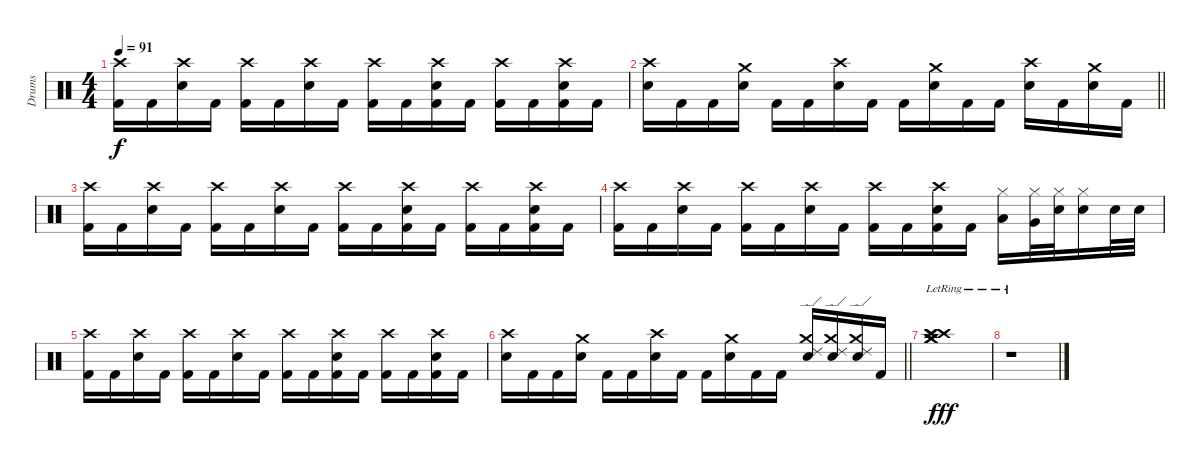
\track ("Drums" "Drums") {instrument percussion}
\staff {score}
\articulation defaults
\ts (4 4)
\tempo 91
\clef neutral
\ks c
("Crash high (hit)" "Kick (hit) 2").16{dy f} "Kick (hit) 2".16 ("Crash high (hit)" "Electric Snare (hit)").16 "Kick (hit) 2".16 ("Crash high (hit)" "Kick (hit) 2").16 "Kick (hit) 2".16 ("Crash high (hit)" "Electric Snare (hit)").16 "Kick (hit) 2".16 ("Crash high (hit)" "Kick (hit) 2").16 "Kick (hit) 2".16 ("Crash high (hit)" "Electric Snare (hit)" "Kick (hit) 2").16 "Kick (hit) 2".16 ("Crash high (hit)" "Kick (hit) 2").16 "Kick (hit) 2".16 ("Crash high (hit)" "Electric Snare (hit)" "Kick (hit) 2").16 "Kick (hit) 2".16 |
\barLineRight lightlight
("Crash high (hit)" "Electric Snare (hit)").16 "Kick (hit) 2".16 "Kick (hit) 2".16 ("Crash medium (hit)" "Electric Snare (hit)").16 "Kick (hit) 2".16 "Kick (hit) 2".16 ("Crash high (hit)" "Electric Snare (hit)").16 "Kick (hit) 2".16 "Kick (hit) 2".16 ("Crash medium (hit)" "Electric Snare (hit)").16 "Kick (hit) 2".16 "Kick (hit) 2".16 ("Crash high (hit)" "Electric Snare (hit)").16 "Kick (hit) 2".16 ("Crash medium (hit)" "Electric Snare (hit)").16 "Kick (hit) 2".16 |
("Crash high (hit)" "Kick (hit) 2").16 "Kick (hit) 2".16 ("Crash high (hit)" "Electric Snare (hit)").16 "Kick (hit) 2".16 ("Crash high (hit)" "Kick (hit) 2").16 "Kick (hit) 2".16 ("Crash high (hit)" "Electric Snare (hit)").16 "Kick (hit) 2".16 ("Crash high (hit)" "Kick (hit) 2").16 "Kick (hit) 2".16 ("Crash high (hit)" "Electric Snare (hit)" "Kick (hit) 2").16 "Kick (hit) 2".16 ("Crash high (hit)" "Kick (hit) 2").16 "Kick (hit) 2".16 ("Crash high (hit)" "Electric Snare (hit)" "Kick (hit) 2").16 "Kick (hit) 2".16 |
("Crash high (hit)" "Kick (hit) 2").16 "Kick (hit) 2".16 ("Crash high (hit)" "Electric Snare (hit)").16 "Kick (hit) 2".16 ("Crash high (hit)" "Kick (hit) 2").16 "Kick (hit) 2".16 ("Crash high (hit)" "Electric Snare (hit)").16 "Kick (hit) 2".16 ("Crash high (hit)" "Kick (hit) 2").16 "Kick (hit) 2".16 ("Crash high (hit)" "Electric Snare (hit)" "Kick (hit) 2").16 "Kick (hit) 2".16 ("Hi-Hat (closed)" "Low Tom (hit)").16 ("Hi-Hat (closed)" "Very Low Tom (hit)").32 ("Hi-Hat (closed)" "Electric Snare (hit)").32 ("Hi-Hat (closed)" "Electric Snare (hit)").16 "Electric Snare (hit)".32 "Electric Snare (hit)".32 |
("Crash high (hit)" "Kick (hit) 2").16 "Kick (hit) 2".16 ("Crash high (hit)" "Electric Snare (hit)").16 "Kick (hit) 2".16 ("Crash high (hit)" "Kick (hit) 2").16 "Kick (hit) 2".16 ("Crash high (hit)" "Electric Snare (hit)").16 "Kick (hit) 2".16 ("Crash high (hit)" "Kick (hit) 2").16 "Kick (hit) 2".16 ("Crash high (hit)" "Electric Snare (hit)" "Kick (hit) 2").16 "Kick (hit) 2".16 ("Crash high (hit)" "Kick (hit) 2").16 "Kick (hit) 2".16 ("Crash high (hit)" "Electric Snare (hit)" "Kick (hit) 2").16 "Kick (hit) 2".16 |
\barLineRight lightlight
("Crash high (hit)" "Electric Snare (hit)").16 "Kick (hit) 2".16 "Kick (hit) 2".16 ("Crash medium (hit)" "Electric Snare (hit)").16 "Kick (hit) 2".16 "Kick (hit) 2".16 ("Crash high (hit)" "Electric Snare (hit)").16 "Kick (hit) 2".16 "Kick (hit) 2".16 ("Crash medium (hit)" "Electric Snare (hit)").16 "Kick (hit) 2".16 "Kick (hit) 2".16 ("Crash medium (hit)" "Ride (edge) 2" "Electric Snare (hit)").16 ("Crash medium (hit)" "Ride (edge) 2" "Electric Snare (hit)").16 ("Crash medium (hit)" "Ride (edge) 2" "Electric Snare (hit)").16 "Kick (hit) 2".16 |
("Crash high (hit)"{lr} "Crash high (hit)"{lr} "Crash high (hit)"{lr} "Crash medium (hit)"{lr} "Crash medium (hit)"{lr} "Crash medium (hit)"{lr}).1{dy fff} |
r.1
